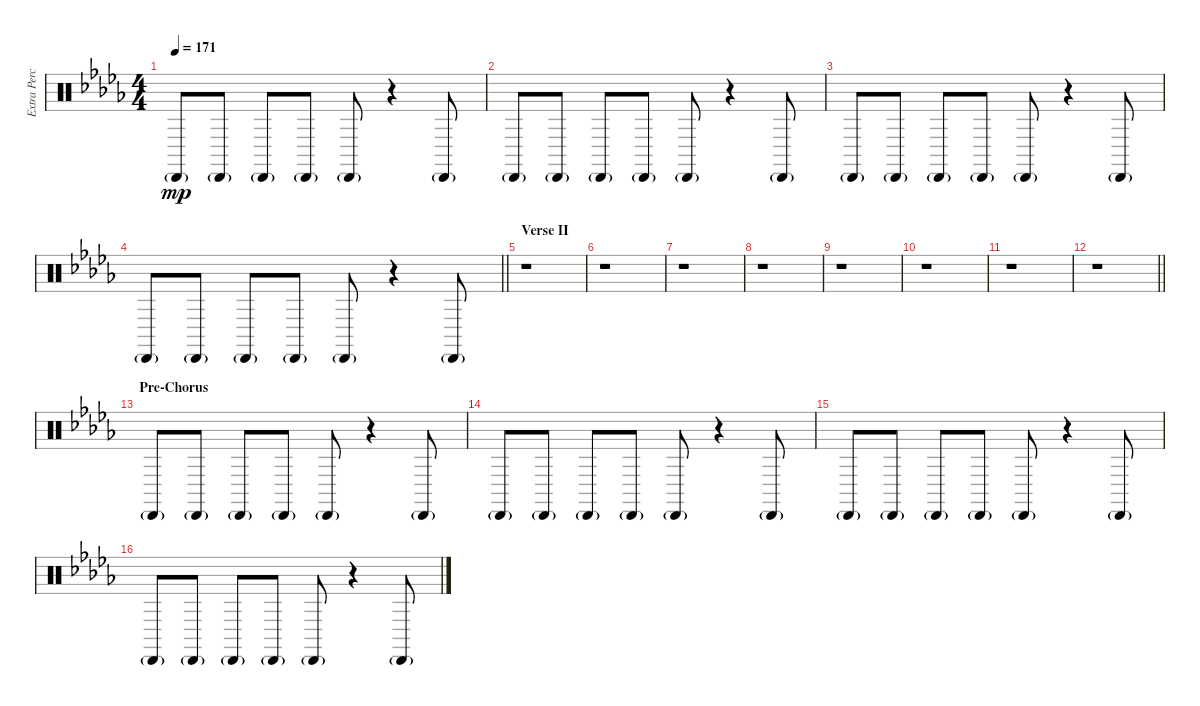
\track ("Extra Percussion" "Extra Perc") {instrument percussion}
\staff {score}
\articulation defaults
\ts (4 4)
\tempo 171
\clef neutral
\ks db "Cabasa (hit)"{g}.8{dy mp} "Cabasa (hit)"{g}.8 "Cabasa (hit)"{g}.8 "Cabasa (hit)"{g}.8 "Cabasa (hit)"{g}.8
r.4 "Cabasa (hit)"{g}.8 |
"Cabasa (hit)"{g}.8 "Cabasa (hit)"{g}.8 "Cabasa (hit)"{g}.8 "Cabasa (hit)"{g}.8 "Cabasa (hit)"{g}.8 r.4 "Cabasa (hit)"{g}.8 |
"Cabasa (hit)"{g}.8 "Cabasa (hit)"{g}.8 "Cabasa (hit)"{g}.8 "Cabasa (hit)"{g}.8 "Cabasa (hit)"{g}.8 r.4 "Cabasa (hit)"{g}.8 |
\barLineRight lightlight "Cabasa (hit)"{g}.8 "Cabasa (hit)"{g}.8 "Cabasa (hit)"{g}.8 "Cabasa (hit)"{g}.8 "Cabasa (hit)"{g}.8
r.4 "Cabasa (hit)"{g}.8 |
\section ("" "Verse II")
r.1 |
r.1 |
r.1 |
r.1 |
r.1 |
r.1 |
r.1 |
\barLineRight lightlight
r.1 |
\section ("" "Pre-Chorus")
"Cabasa (hit)"{g}.8 "Cabasa (hit)"{g}.8 "Cabasa (hit)"{g}.8 "Cabasa (hit)"{g}.8 "Cabasa (hit)"{g}.8 r.4 "Cabasa (hit)"{g}.8 |
"Cabasa (hit)"{g}.8 "Cabasa (hit)"{g}.8 "Cabasa (hit)"{g}.8 "Cabasa (hit)"{g}.8 "Cabasa (hit)"{g}.8 r.4 "Cabasa (hit)"{g}.8 |
"Cabasa (hit)"{g}.8 "Cabasa (hit)"{g}.8 "Cabasa (hit)"{g}.8 "Cabasa (hit)"{g}.8 "Cabasa (hit)"{g}.8 r.4 "Cabasa (hit)"{g}.8 |
"Cabasa (hit)"{g}.8 "Cabasa (hit)"{g}.8 "Cabasa (hit)"{g}.8 "Cabasa (hit)"{g}.8 "Cabasa (hit)"{g}.8 r.4 "Cabasa (hit)"{g}.8
